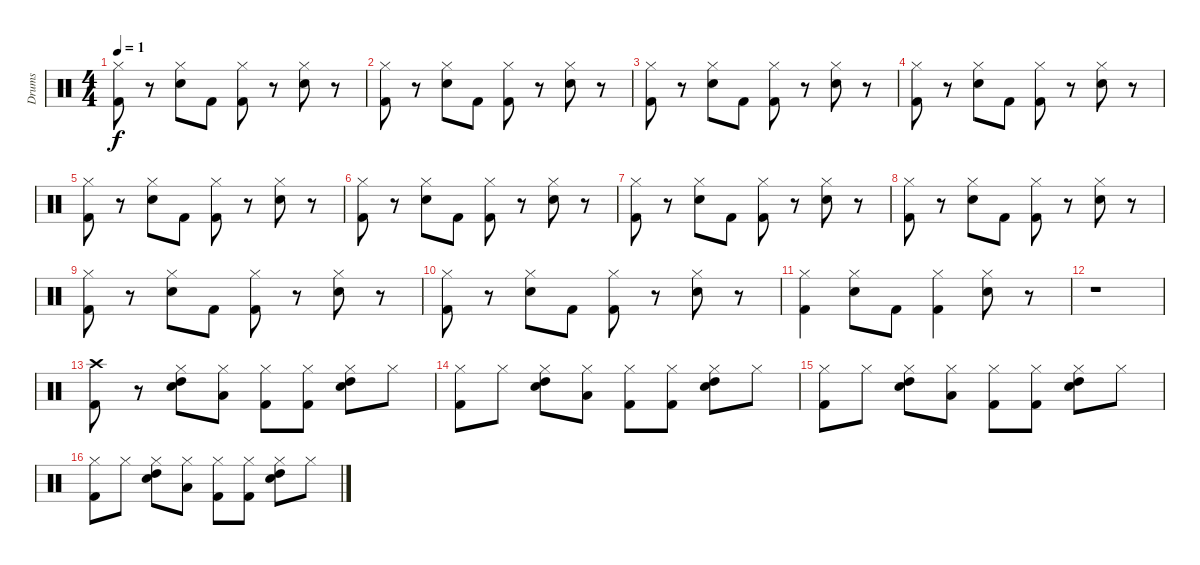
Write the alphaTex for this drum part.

\track ("Drums" "Drums") {instrument percussion}
\staff {score}
\articulation defaults
\ts (4 4)
\tempo 1
\clef neutral
\ks c
("Hi-Hat (closed)" "Kick (hit) 2").8{dy f} r.8 ("Hi-Hat (closed)" "Snare (hit) 2").8 "Kick (hit) 2".8 ("Hi-Hat (closed)" "Kick (hit) 2").8 r.8 ("Hi-Hat (closed)" "Snare (hit) 2").8 r.8 |
("Hi-Hat (closed)" "Kick (hit) 2").8 r.8 ("Hi-Hat (closed)" "Snare (hit) 2").8 "Kick (hit) 2".8 ("Hi-Hat (closed)" "Kick (hit) 2").8 r.8 ("Hi-Hat (closed)" "Snare (hit) 2").8 r.8 |
("Hi-Hat (closed)" "Kick (hit) 2").8 r.8 ("Hi-Hat (closed)" "Snare (hit) 2").8 "Kick (hit) 2".8 ("Hi-Hat (closed)" "Kick (hit) 2").8 r.8 ("Hi-Hat (closed)" "Snare (hit) 2").8 r.8 |
("Hi-Hat (closed)" "Kick (hit) 2").8 r.8 ("Hi-Hat (closed)" "Snare (hit) 2").8 "Kick (hit) 2".8 ("Hi-Hat (closed)" "Kick (hit) 2").8 r.8 ("Hi-Hat (closed)" "Snare (hit) 2").8 r.8 |
("Hi-Hat (closed)" "Kick (hit) 2").8 r.8 ("Hi-Hat (closed)" "Snare (hit) 2").8 "Kick (hit) 2".8 ("Hi-Hat (closed)" "Kick (hit) 2").8 r.8 ("Hi-Hat (closed)" "Snare (hit) 2").8 r.8 |
("Hi-Hat (closed)" "Kick (hit) 2").8 r.8 ("Hi-Hat (closed)" "Snare (hit) 2").8 "Kick (hit) 2".8 ("Hi-Hat (closed)" "Kick (hit) 2").8 r.8 ("Hi-Hat (closed)" "Snare (hit) 2").8 r.8 |
("Hi-Hat (closed)" "Kick (hit) 2").8 r.8 ("Hi-Hat (closed)" "Snare (hit) 2").8 "Kick (hit) 2".8 ("Hi-Hat (closed)" "Kick (hit) 2").8 r.8 ("Hi-Hat (closed)" "Snare (hit) 2").8 r.8 |
("Hi-Hat (closed)" "Kick (hit) 2").8 r.8 ("Hi-Hat (closed)" "Snare (hit) 2").8 "Kick (hit) 2".8 ("Hi-Hat (closed)" "Kick (hit) 2").8 r.8 ("Hi-Hat (closed)" "Snare (hit) 2").8 r.8 |
("Hi-Hat (closed)" "Kick (hit) 2").8 r.8 ("Hi-Hat (closed)" "Snare (hit) 2").8 "Kick (hit) 2".8 ("Hi-Hat (closed)" "Kick (hit) 2").8 r.8 ("Hi-Hat (closed)" "Snare (hit) 2").8 r.8 |
("Hi-Hat (closed)" "Kick (hit) 2").8 r.8 ("Hi-Hat (closed)" "Snare (hit) 2").8 "Kick (hit) 2".8 ("Hi-Hat (closed)" "Kick (hit) 2").8 r.8 ("Hi-Hat (closed)" "Snare (hit) 2").8 r.8 |
("Hi-Hat (closed)" "Kick (hit) 2").4 ("Hi-Hat (closed)" "Snare (hit) 2").8 "Kick (hit) 2".8 ("Hi-Hat (closed)" "Kick (hit) 2").4 ("Hi-Hat (closed)" "Snare (hit) 2").8 r.8 |
r.1 |
("Crash high (hit)" "Kick (hit) 2").8 r.8 ("Hi-Hat (closed)" "Snare (hit) 2" "High Tom (hit)").8 ("Hi-Hat (closed)" "Low Tom (hit)").8 ("Hi-Hat (closed)" "Kick (hit) 2").8 ("Hi-Hat (closed)" "Kick (hit) 2").8 ("Hi-Hat (closed)" "Snare (hit) 2" "High Tom (hit)").8 "Hi-Hat (closed)".8 |
("Hi-Hat (closed)" "Kick (hit) 2").8 "Hi-Hat (closed)".8 ("Hi-Hat (closed)" "Snare (hit) 2" "High Tom (hit)").8 ("Hi-Hat (closed)" "Low Tom (hit)").8 ("Hi-Hat (closed)" "Kick (hit) 2").8 ("Hi-Hat (closed)" "Kick (hit) 2").8 ("Hi-Hat (closed)" "Snare (hit) 2" "High Tom (hit)").8 "Hi-Hat (closed)".8 |
("Hi-Hat (closed)" "Kick (hit) 2").8 "Hi-Hat (closed)".8 ("Hi-Hat (closed)" "Snare (hit) 2" "High Tom (hit)").8 ("Hi-Hat (closed)" "Low Tom (hit)").8 ("Hi-Hat (closed)" "Kick (hit) 2").8 ("Hi-Hat (closed)" "Kick (hit) 2").8 ("Hi-Hat (closed)" "Snare (hit) 2" "High Tom (hit)").8 "Hi-Hat (closed)".8 |
("Hi-Hat (closed)" "Kick (hit) 2").8 "Hi-Hat (closed)".8 ("Hi-Hat (closed)" "Snare (hit) 2" "High Tom (hit)").8 ("Hi-Hat (closed)" "Low Tom (hit)").8 ("Hi-Hat (closed)" "Kick (hit) 2").8 ("Hi-Hat (closed)" "Kick (hit) 2").8 ("Hi-Hat (closed)" "Snare (hit) 2" "High Tom (hit)").8 "Hi-Hat (closed)".8
